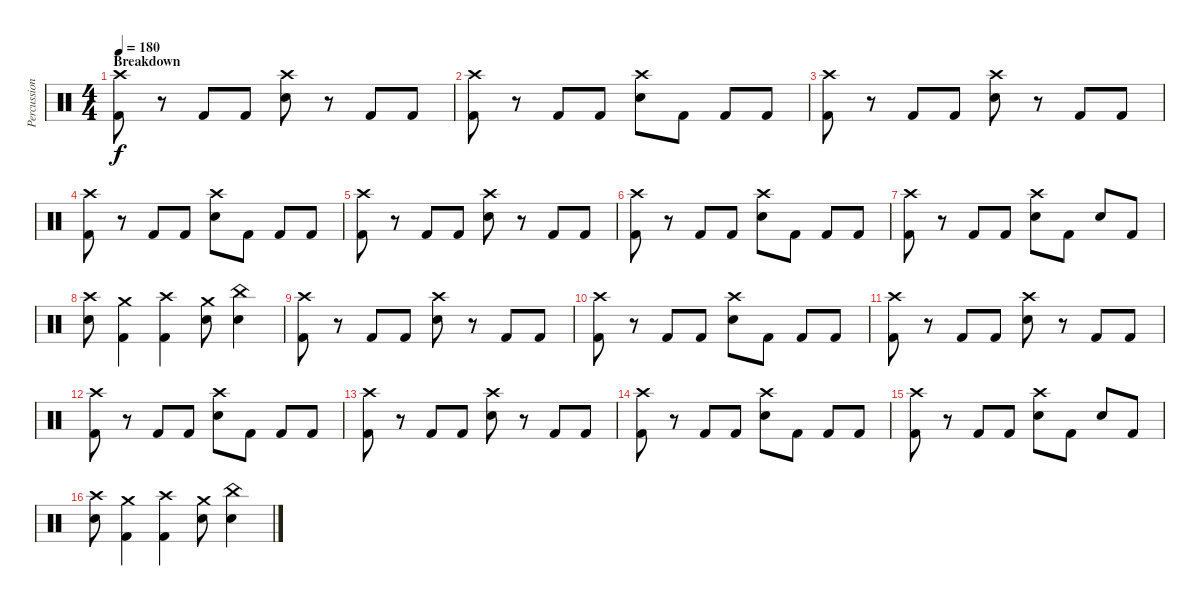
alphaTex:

\track ("Percussion" "Percussion") {instrument percussion}
\staff {score}
\articulation defaults
\ts (4 4)
\section ("" "Breakdown")
\tempo 180
\clef neutral
\ks c
("Crash high (hit)" "Kick (hit) 2").8{dy f} r.8 "Kick (hit) 2".8 "Kick (hit) 2".8 ("Crash high (hit)" "Electric Snare (hit)").8 r.8 "Kick (hit) 2".8 "Kick (hit) 2".8 |
("Crash high (hit)" "Kick (hit) 2").8 r.8 "Kick (hit) 2".8 "Kick (hit) 2".8 ("Crash high (hit)" "Electric Snare (hit)").8 "Kick (hit) 2".8 "Kick (hit) 2".8 "Kick (hit) 2".8 |
("Crash high (hit)" "Kick (hit) 2").8 r.8 "Kick (hit) 2".8 "Kick (hit) 2".8 ("Crash high (hit)" "Electric Snare (hit)").8 r.8 "Kick (hit) 2".8 "Kick (hit) 2".8 |
("Crash high (hit)" "Kick (hit) 2").8 r.8 "Kick (hit) 2".8 "Kick (hit) 2".8 ("Crash high (hit)" "Electric Snare (hit)").8 "Kick (hit) 2".8 "Kick (hit) 2".8 "Kick (hit) 2".8 |
("Crash high (hit)" "Kick (hit) 2").8 r.8 "Kick (hit) 2".8 "Kick (hit) 2".8 ("Crash high (hit)" "Electric Snare (hit)").8 r.8 "Kick (hit) 2".8 "Kick (hit) 2".8 |
("Crash high (hit)" "Kick (hit) 2").8 r.8 "Kick (hit) 2".8 "Kick (hit) 2".8 ("Crash high (hit)" "Electric Snare (hit)").8 "Kick (hit) 2".8 "Kick (hit) 2".8 "Kick (hit) 2".8 |
("Crash high (hit)" "Kick (hit) 2").8 r.8 "Kick (hit) 2".8 "Kick (hit) 2".8 ("Crash high (hit)" "Electric Snare (hit)").8 "Kick (hit) 2".8 "Electric Snare (hit)".8 "Kick (hit) 2".8 |
("Crash high (hit)" "Electric Snare (hit)").8 ("Crash medium (hit)" "Kick (hit) 2").4 ("Crash high (hit)" "Kick (hit) 2").4 ("Crash medium (hit)" "Electric Snare (hit)").8 ("China (hit)" "Electric Snare (hit)").4 |
("Crash high (hit)" "Kick (hit) 2").8 r.8 "Kick (hit) 2".8 "Kick (hit) 2".8 ("Crash high (hit)" "Electric Snare (hit)").8 r.8 "Kick (hit) 2".8 "Kick (hit) 2".8 |
("Crash high (hit)" "Kick (hit) 2").8 r.8 "Kick (hit) 2".8 "Kick (hit) 2".8 ("Crash high (hit)" "Electric Snare (hit)").8 "Kick (hit) 2".8 "Kick (hit) 2".8 "Kick (hit) 2".8 |
("Crash high (hit)" "Kick (hit) 2").8 r.8 "Kick (hit) 2".8 "Kick (hit) 2".8 ("Crash high (hit)" "Electric Snare (hit)").8 r.8 "Kick (hit) 2".8 "Kick (hit) 2".8 |
("Crash high (hit)" "Kick (hit) 2").8 r.8 "Kick (hit) 2".8 "Kick (hit) 2".8 ("Crash high (hit)" "Electric Snare (hit)").8 "Kick (hit) 2".8 "Kick (hit) 2".8 "Kick (hit) 2".8 |
("Crash high (hit)" "Kick (hit) 2").8 r.8 "Kick (hit) 2".8 "Kick (hit) 2".8 ("Crash high (hit)" "Electric Snare (hit)").8 r.8 "Kick (hit) 2".8 "Kick (hit) 2".8 |
("Crash high (hit)" "Kick (hit) 2").8 r.8 "Kick (hit) 2".8 "Kick (hit) 2".8 ("Crash high (hit)" "Electric Snare (hit)").8 "Kick (hit) 2".8 "Kick (hit) 2".8 "Kick (hit) 2".8 |
("Crash high (hit)" "Kick (hit) 2").8 r.8 "Kick (hit) 2".8 "Kick (hit) 2".8 ("Crash high (hit)" "Electric Snare (hit)").8 "Kick (hit) 2".8 "Electric Snare (hit)".8 "Kick (hit) 2".8 |
("Crash high (hit)" "Electric Snare (hit)").8 ("Crash medium (hit)" "Kick (hit) 2").4 ("Crash high (hit)" "Kick (hit) 2").4 ("Crash medium (hit)" "Electric Snare (hit)").8 ("China (hit)" "Electric Snare (hit)").4
